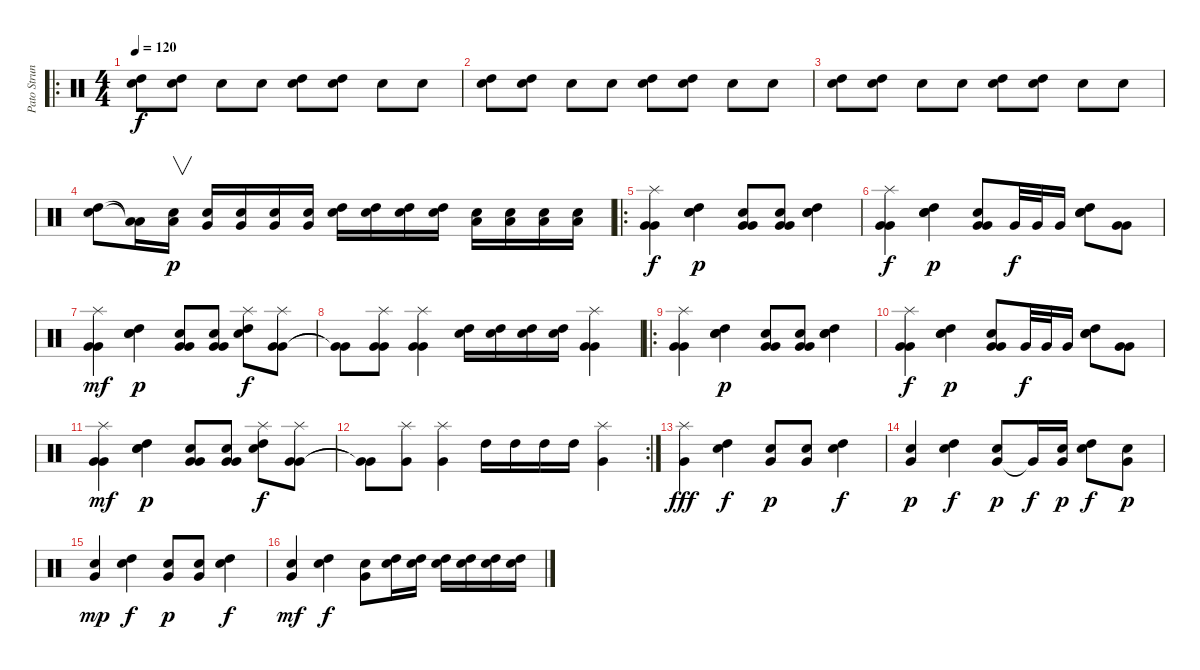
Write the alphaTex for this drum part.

\track ("Pato Strunz" "Pato Strun") {instrument percussion}
\staff {score}
\articulation defaults
\ro
\ts (4 4)
\tempo 120
\clef neutral
\ks c
("High Tom (hit)" "Snare (hit) 2").8{dy f} ("High Tom (hit)" "Snare (hit) 2").8 "Snare (hit)".8 "Snare (hit)".8 ("High Tom (hit)" "Snare (hit) 2").8 ("High Tom (hit)" "Snare (hit) 2").8 "Snare (hit)".8 "Snare (hit)".8 |
("High Tom (hit)" "Snare (hit) 2").8 ("High Tom (hit)" "Snare (hit) 2").8 "Snare (hit)".8 "Snare (hit)".8 ("High Tom (hit)" "Snare (hit) 2").8 ("High Tom (hit)" "Snare (hit) 2").8 "Snare (hit)".8 "Snare (hit)".8 |
("High Tom (hit)" "Snare (hit) 2").8 ("High Tom (hit)" "Snare (hit) 2").8 "Snare (hit)".8 "Snare (hit)".8 ("High Tom (hit)" "Snare (hit) 2").8 ("High Tom (hit)" "Snare (hit) 2").8 "Snare (hit)".8 "Snare (hit)".8 |
("High Tom (hit)" "Snare (hit) 2").8 ("Low Tom (hit)"{t} "Low Tom (hit)"{t}).16 ("Low Tom (hit)" "Snare (hit) 2").16{v dy p} ("Very Low Tom (hit)" "Snare (hit) 2").16 ("Very Low Tom (hit)" "Snare (hit) 2").16 ("Very Low Tom (hit)" "Snare (hit) 2").16 ("Very Low Tom (hit)" "Snare (hit) 2").16 ("High Tom (hit)" "Snare (hit) 2").16 ("High Tom (hit)" "Snare (hit) 2").16 ("High Tom (hit)" "Snare (hit) 2").16 ("High Tom (hit)" "Snare (hit) 2").16 ("Low Tom (hit)" "Snare (hit) 2").16 ("Low Tom (hit)" "Snare (hit) 2").16 ("Low Tom (hit)" "Snare (hit) 2").16 ("Low Tom (hit)" "Snare (hit) 2").16 |
\ro
("Very Low Tom (hit)" "Very Low Tom (hit)" "Splash (hit)").4{dy f volume 12} ("High Tom (hit)" "Snare (hit) 2" "Snare (hit) 2").4{dy p} ("Very Low Tom (hit)" "Very Low Tom (hit)" "Snare (hit) 2").8 ("Very Low Tom (hit)" "Very Low Tom (hit)" "Snare (hit) 2").8 ("High Tom (hit)" "Snare (hit) 2" "Snare (hit) 2").4 |
("Very Low Tom (hit)" "Very Low Tom (hit)" "Splash (hit)").4{dy f} ("High Tom (hit)" "Snare (hit) 2" "Snare (hit) 2").4{dy p} ("Very Low Tom (hit)" "Very Low Tom (hit)" "Snare (hit) 2").8 "Very Low Tom (hit)".32{dy f} "Very Low Tom (hit)".32 "Very Low Tom (hit)".16 ("High Tom (hit)" "Snare (hit) 2" "Snare (hit) 2").8 ("Very Low Tom (hit)" "Very Low Tom (hit)").8 |
("Very Low Tom (hit)" "Very Low Tom (hit)" "Splash (hit)").4{dy mf} ("High Tom (hit)" "Snare (hit) 2" "Snare (hit) 2").4{dy p} ("Very Low Tom (hit)" "Very Low Tom (hit)" "Snare (hit) 2").8 ("Very Low Tom (hit)" "Very Low Tom (hit)" "Snare (hit) 2").8 ("High Tom (hit)" "Snare (hit) 2" "Splash (hit)").8{dy f} ("Very Low Tom (hit)" "Very Low Tom (hit)" "Splash (hit)").8 |
("Very Low Tom (hit)"{t} "Very Low Tom (hit)"{t}).8 ("Very Low Tom (hit)" "Very Low Tom (hit)" "Splash (hit)").8 ("Very Low Tom (hit)" "Very Low Tom (hit)" "Splash (hit)").4 ("High Tom (hit)" "Snare (hit) 2").16 ("High Tom (hit)" "Snare (hit) 2").16 ("High Tom (hit)" "Snare (hit) 2").16 ("High Tom (hit)" "Snare (hit) 2").16 ("Very Low Tom (hit)" "Very Low Tom (hit)" "Splash (hit)").4 |
\ro
("Very Low Tom (hit)" "Very Low Tom (hit)" "Splash (hit)").4 ("High Tom (hit)" "Snare (hit) 2" "Snare (hit) 2").4{dy p} ("Very Low Tom (hit)" "Very Low Tom (hit)" "Snare (hit) 2").8 ("Very Low Tom (hit)" "Very Low Tom (hit)" "Snare (hit) 2").8 ("High Tom (hit)" "Snare (hit) 2" "Snare (hit) 2").4 |
("Very Low Tom (hit)" "Very Low Tom (hit)" "Splash (hit)").4{dy f} ("High Tom (hit)" "Snare (hit) 2" "Snare (hit) 2").4{dy p} ("Very Low Tom (hit)" "Very Low Tom (hit)" "Snare (hit) 2").8 "Very Low Tom (hit)".32{dy f} "Very Low Tom (hit)".32 "Very Low Tom (hit)".16 ("High Tom (hit)" "Snare (hit) 2" "Snare (hit) 2").8 ("Very Low Tom (hit)" "Very Low Tom (hit)").8 |
("Very Low Tom (hit)" "Very Low Tom (hit)" "Splash (hit)").4{dy mf} ("High Tom (hit)" "Snare (hit) 2" "Snare (hit) 2").4{dy p} ("Very Low Tom (hit)" "Very Low Tom (hit)" "Snare (hit) 2").8 ("Very Low Tom (hit)" "Very Low Tom (hit)" "Snare (hit) 2").8 ("High Tom (hit)" "Snare (hit) 2" "Splash (hit)").8{dy f} ("Very Low Tom (hit)" "Very Low Tom (hit)" "Splash (hit)").8 |
\rc 2
("Very Low Tom (hit)"{t} "Very Low Tom (hit)"{t}).8 ("Very Low Tom (hit)" "Splash (hit)").8 ("Very Low Tom (hit)" "Splash (hit)").4 "High Tom (hit)".16 "High Tom (hit)".16 "High Tom (hit)".16 "High Tom (hit)".16 ("Very Low Tom (hit)" "Splash (hit)").4 |
("Very Low Tom (hit)" "Splash (hit)").4{dy fff} ("High Tom (hit)" "Snare (hit) 2").4{dy f} ("Very Low Tom (hit)" "Snare (hit) 2").8{dy p} ("Very Low Tom (hit)" "Snare (hit) 2").8 ("High Tom (hit)" "Snare (hit) 2").4{dy f} |
("Very Low Tom (hit)" "Snare (hit) 2").4{dy p} ("High Tom (hit)" "Snare (hit) 2").4{dy f} ("Very Low Tom (hit)" "Snare (hit) 2").8{dy p} "Very Low Tom (hit)"{t}.16{dy f} ("Very Low Tom (hit)" "Snare (hit) 2").16{dy p} ("High Tom (hit)" "Snare (hit) 2").8{dy f} ("Very Low Tom (hit)" "Snare (hit) 2").8{dy p} |
("Very Low Tom (hit)" "Snare (hit) 2").4{dy mp} ("High Tom (hit)" "Snare (hit) 2").4{dy f} ("Very Low Tom (hit)" "Snare (hit) 2").8{dy p} ("Very Low Tom (hit)" "Snare (hit) 2").8 ("High Tom (hit)" "Snare (hit) 2").4{dy f} |
("Very Low Tom (hit)" "Snare (hit) 2").4{dy mf} ("High Tom (hit)" "Snare (hit) 2").4{dy f} ("Very Low Tom (hit)" "Snare (hit) 2").8 ("High Tom (hit)" "Snare (hit) 2").16 ("High Tom (hit)" "Snare (hit) 2").16 ("High Tom (hit)" "Snare (hit) 2").16 ("High Tom (hit)" "Snare (hit) 2").16 ("High Tom (hit)" "Snare (hit) 2").16 ("High Tom (hit)" "Snare (hit) 2").16
